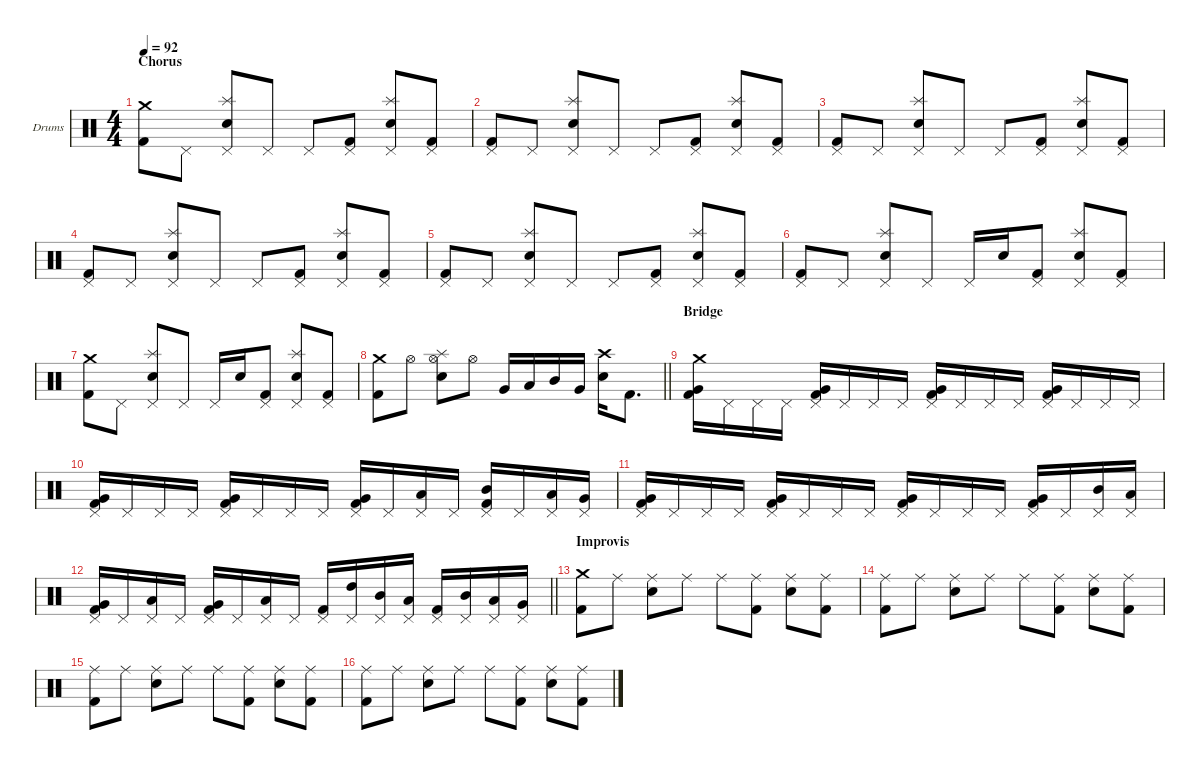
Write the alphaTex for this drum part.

\hideDynamics
\bracketExtendMode nobrackets
\firstSystemTrackNameOrientation horizontal
\otherSystemsTrackNameOrientation horizontal
\track ("Drumkit" "Drums") {instrument percussion}
\staff {score}
\articulation defaults
\ts (4 4)
\section ("" "Chorus")
\tempo 92
\clef neutral
\ks aminor
("Crash medium (hit)" "Kick (hit) 2").8{dy f} "Pedal Hi-Hat (hit)".8 ("Pedal Hi-Hat (hit)" "Splash (hit)" "Snare (hit) 2").8 "Pedal Hi-Hat (hit)".8 "Pedal Hi-Hat (hit)".8 ("Pedal Hi-Hat (hit)" "Kick (hit) 2").8 ("Pedal Hi-Hat (hit)" "Splash (hit)" "Snare (hit) 2").8 ("Pedal Hi-Hat (hit)" "Kick (hit) 2").8 |
("Pedal Hi-Hat (hit)" "Kick (hit) 2").8 "Pedal Hi-Hat (hit)".8 ("Pedal Hi-Hat (hit)" "Splash (hit)" "Snare (hit) 2").8 "Pedal Hi-Hat (hit)".8 "Pedal Hi-Hat (hit)".8 ("Pedal Hi-Hat (hit)" "Kick (hit) 2").8 ("Pedal Hi-Hat (hit)" "Splash (hit)" "Snare (hit) 2").8 ("Pedal Hi-Hat (hit)" "Kick (hit) 2").8 |
("Pedal Hi-Hat (hit)" "Kick (hit) 2").8 "Pedal Hi-Hat (hit)".8 ("Pedal Hi-Hat (hit)" "Splash (hit)" "Snare (hit) 2").8 "Pedal Hi-Hat (hit)".8 "Pedal Hi-Hat (hit)".8 ("Pedal Hi-Hat (hit)" "Kick (hit) 2").8 ("Pedal Hi-Hat (hit)" "Splash (hit)" "Snare (hit) 2").8 ("Pedal Hi-Hat (hit)" "Kick (hit) 2").8 |
("Pedal Hi-Hat (hit)" "Kick (hit) 2").8 "Pedal Hi-Hat (hit)".8 ("Pedal Hi-Hat (hit)" "Splash (hit)" "Snare (hit) 2").8 "Pedal Hi-Hat (hit)".8 "Pedal Hi-Hat (hit)".8 ("Pedal Hi-Hat (hit)" "Kick (hit) 2").8 ("Pedal Hi-Hat (hit)" "Splash (hit)" "Snare (hit) 2").8 ("Pedal Hi-Hat (hit)" "Kick (hit) 2").8 |
("Pedal Hi-Hat (hit)" "Kick (hit) 2").8 "Pedal Hi-Hat (hit)".8 ("Pedal Hi-Hat (hit)" "Splash (hit)" "Snare (hit) 2").8 "Pedal Hi-Hat (hit)".8 "Pedal Hi-Hat (hit)".8 ("Pedal Hi-Hat (hit)" "Kick (hit) 2").8 ("Pedal Hi-Hat (hit)" "Splash (hit)" "Snare (hit) 2").8 ("Pedal Hi-Hat (hit)" "Kick (hit) 2").8 |
("Pedal Hi-Hat (hit)" "Kick (hit) 2").8 "Pedal Hi-Hat (hit)".8 ("Pedal Hi-Hat (hit)" "Splash (hit)" "Snare (hit) 2").8 "Pedal Hi-Hat (hit)".8 "Pedal Hi-Hat (hit)".16 "Snare (hit) 2".16{dy mp} ("Pedal Hi-Hat (hit)" "Kick (hit) 2").8{dy f} ("Pedal Hi-Hat (hit)" "Splash (hit)" "Snare (hit) 2").8 ("Pedal Hi-Hat (hit)" "Kick (hit) 2").8 |
("Crash medium (hit)" "Kick (hit) 2").8{dy mf} "Pedal Hi-Hat (hit)".8{dy f} ("Pedal Hi-Hat (hit)" "Splash (hit)" "Snare (hit) 2").8 "Pedal Hi-Hat (hit)".8 "Pedal Hi-Hat (hit)".16 "Snare (hit) 2".16{dy mp} ("Pedal Hi-Hat (hit)" "Kick (hit) 2").8{dy f} ("Pedal Hi-Hat (hit)" "Splash (hit)" "Snare (hit) 2").8 ("Pedal Hi-Hat (hit)" "Kick (hit) 2").8 |
\barLineRight lightlight
("Crash medium (hit)" "Kick (hit) 2").8 "Hi-Hat (open)".8{dy mp} ("Hi-Hat (open)" "Splash (hit)" "Snare (hit) 2").8 "Hi-Hat (open)".8 "Very Low Tom (hit)".16 "Low Tom (hit)".16{dy mf} "Mid Tom (hit)".16 "Very Low Tom (hit)".16{dy mp} ("Crash high (hit)" "Snare (hit) 2").16{dy f} "Kick (hit) 2".8{d} |
\section ("" "Bridge")
("Crash medium (hit)" "Very Low Tom (hit)" "Kick (hit) 2").16 "Pedal Hi-Hat (hit)".16{dy p} "Pedal Hi-Hat (hit)".16 "Pedal Hi-Hat (hit)".16 ("Pedal Hi-Hat (hit)" "Very Low Tom (hit)" "Kick (hit) 2").16 "Pedal Hi-Hat (hit)".16 "Pedal Hi-Hat (hit)".16 "Pedal Hi-Hat (hit)".16 ("Pedal Hi-Hat (hit)" "Very Low Tom (hit)" "Kick (hit) 2").16 "Pedal Hi-Hat (hit)".16 "Pedal Hi-Hat (hit)".16 "Pedal Hi-Hat (hit)".16 ("Pedal Hi-Hat (hit)" "Very Low Tom (hit)" "Kick (hit) 2").16 "Pedal Hi-Hat (hit)".16 "Pedal Hi-Hat (hit)".16 "Pedal Hi-Hat (hit)".16 |
("Pedal Hi-Hat (hit)" "Very Low Tom (hit)" "Kick (hit) 2").16 "Pedal Hi-Hat (hit)".16 "Pedal Hi-Hat (hit)".16 "Pedal Hi-Hat (hit)".16 ("Pedal Hi-Hat (hit)" "Very Low Tom (hit)" "Kick (hit) 2").16 "Pedal Hi-Hat (hit)".16 "Pedal Hi-Hat (hit)".16 "Pedal Hi-Hat (hit)".16 ("Pedal Hi-Hat (hit)" "Very Low Tom (hit)" "Kick (hit) 2").16 "Pedal Hi-Hat (hit)".16 ("Pedal Hi-Hat (hit)" "Low Tom (hit)").16 "Pedal Hi-Hat (hit)".16 ("Pedal Hi-Hat (hit)" "Mid Tom (hit)" "Kick (hit) 2").16 "Pedal Hi-Hat (hit)".16 ("Pedal Hi-Hat (hit)" "Low Tom (hit)").16 ("Pedal Hi-Hat (hit)" "Very Low Tom (hit)").16 |
("Pedal Hi-Hat (hit)" "Very Low Tom (hit)" "Kick (hit) 2").16 "Pedal Hi-Hat (hit)".16 "Pedal Hi-Hat (hit)".16 "Pedal Hi-Hat (hit)".16 ("Pedal Hi-Hat (hit)" "Very Low Tom (hit)" "Kick (hit) 2").16 "Pedal Hi-Hat (hit)".16 "Pedal Hi-Hat (hit)".16 "Pedal Hi-Hat (hit)".16 ("Pedal Hi-Hat (hit)" "Very Low Tom (hit)" "Kick (hit) 2").16 "Pedal Hi-Hat (hit)".16 "Pedal Hi-Hat (hit)".16 "Pedal Hi-Hat (hit)".16 ("Pedal Hi-Hat (hit)" "Very Low Tom (hit)" "Kick (hit) 2").16 "Pedal Hi-Hat (hit)".16 ("Pedal Hi-Hat (hit)" "Mid Tom (hit)").16 ("Pedal Hi-Hat (hit)" "Low Tom (hit)").16 |
\barLineRight lightlight
("Pedal Hi-Hat (hit)" "Very Low Tom (hit)" "Kick (hit) 2").16 "Pedal Hi-Hat (hit)".16 ("Pedal Hi-Hat (hit)" "Low Tom (hit)").16 "Pedal Hi-Hat (hit)".16 ("Pedal Hi-Hat (hit)" "Very Low Tom (hit)" "Kick (hit) 2").16 "Pedal Hi-Hat (hit)".16 ("Pedal Hi-Hat (hit)" "Low Tom (hit)").16 "Pedal Hi-Hat (hit)".16 ("Pedal Hi-Hat (hit)" "Kick (hit) 2").16 ("Pedal Hi-Hat (hit)" "High Tom (hit)").16 ("Pedal Hi-Hat (hit)" "Mid Tom (hit)").16 ("Pedal Hi-Hat (hit)" "Low Tom (hit)").16 ("Pedal Hi-Hat (hit)" "Kick (hit) 2").16 ("Pedal Hi-Hat (hit)" "Mid Tom (hit)").16 ("Pedal Hi-Hat (hit)" "Low Tom (hit)").16 ("Pedal Hi-Hat (hit)" "Very Low Tom (hit)").16 |
\section ("" "Improvis")
("Crash medium (hit)" "Kick (hit) 2").8{dy f} "Ride (middle)".8 ("Ride (middle)" "Snare (hit) 2").8 "Ride (middle)".8 "Ride (middle)".8 ("Ride (middle)" "Kick (hit) 2").8 ("Ride (middle)" "Snare (hit) 2").8 ("Ride (middle)" "Kick (hit) 2").8 |
("Ride (middle)" "Kick (hit) 2").8 "Ride (middle)".8 ("Ride (middle)" "Snare (hit) 2").8 "Ride (middle)".8 "Ride (middle)".8 ("Ride (middle)" "Kick (hit) 2").8 ("Ride (middle)" "Snare (hit) 2").8 ("Ride (middle)" "Kick (hit) 2").8 |
("Ride (middle)" "Kick (hit) 2").8 "Ride (middle)".8 ("Ride (middle)" "Snare (hit) 2").8 "Ride (middle)".8 "Ride (middle)".8 ("Ride (middle)" "Kick (hit) 2").8 ("Ride (middle)" "Snare (hit) 2").8 ("Ride (middle)" "Kick (hit) 2").8 |
("Ride (middle)" "Kick (hit) 2").8 "Ride (middle)".8 ("Ride (middle)" "Snare (hit) 2").8 "Ride (middle)".8 "Ride (middle)".8 ("Ride (middle)" "Kick (hit) 2").8 ("Ride (middle)" "Snare (hit) 2").8 ("Ride (middle)" "Kick (hit) 2").8
